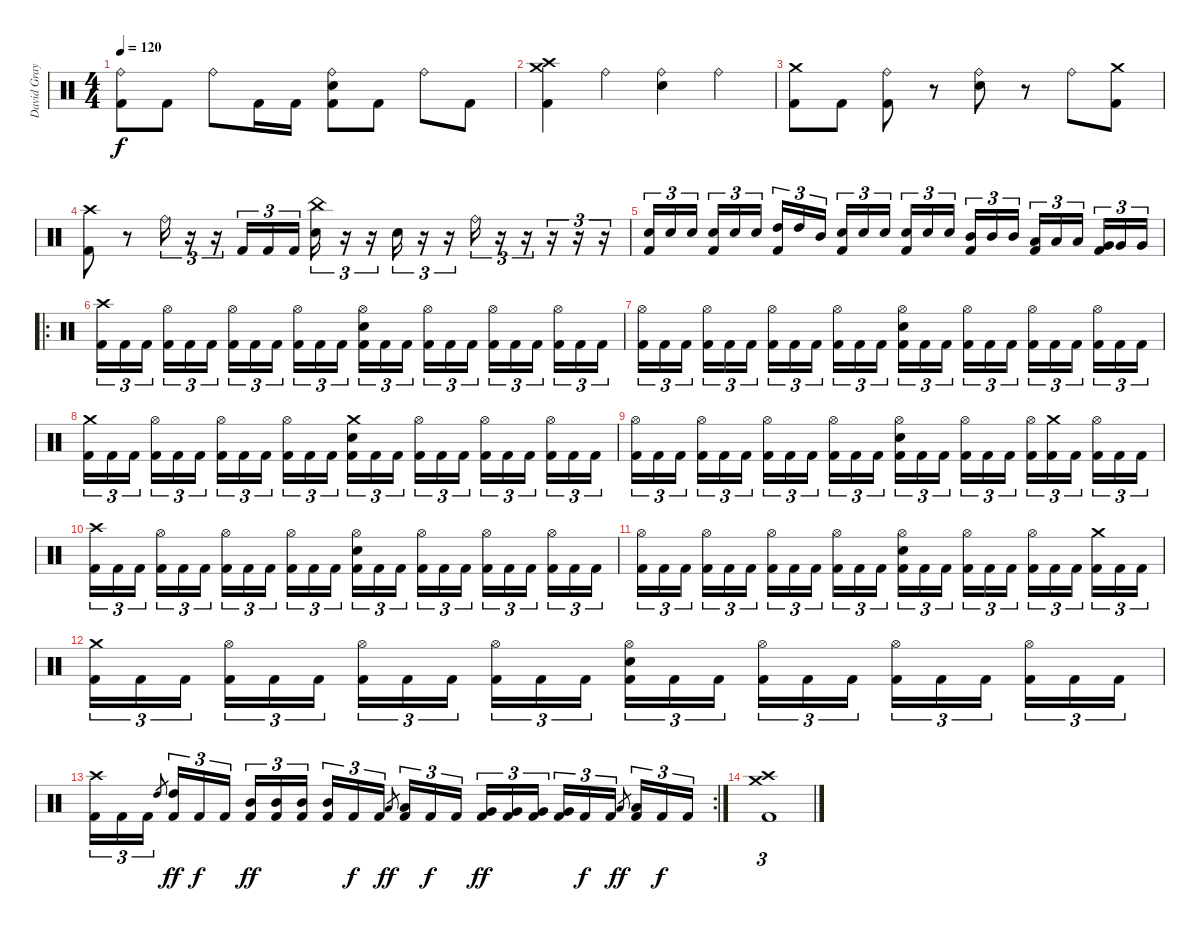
\track ("David Gray" "David Gray") {instrument percussion}
\staff {score}
\articulation defaults
\ts (4 4)
\tempo 120
\clef neutral
\ks c
("Ride (bell)" "Kick (hit) 2").8{dy f} "Kick (hit) 2".8 "Ride (bell)".8 "Kick (hit) 2".16 "Kick (hit) 2".16 ("Ride (bell)" "Electric Snare (hit)" "Kick (hit) 2").8 "Kick (hit) 2".8 "Ride (bell)".8 "Kick (hit) 2".8 |
("Crash high (hit)" "Crash medium (hit)" "Kick (hit) 2").4 "Ride (bell)".4 ("Ride (bell)" "Electric Snare (hit)").4 "Ride (bell)".4 |
("Crash medium (hit)" "Kick (hit) 2").8 "Kick (hit) 2".8 ("Ride (bell)" "Kick (hit) 2").8 r.8 ("Ride (bell)" "Electric Snare (hit)").8 r.8 "Ride (bell)".8 ("Crash medium (hit)" "Kick (hit) 2").8 |
("Crash high (hit)" "Kick (hit) 2").8 r.8 "Ride (bell)".16{tu (3 2)} r.16{tu (3 2)} r.16{tu (3 2)} "Kick (hit) 2".16{tu (3 2)} "Kick (hit) 2".16{tu (3 2)} "Kick (hit) 2".16{tu (3 2)} ("China (hit)" "Electric Snare (hit)").16{tu (3 2)} r.16{tu (3 2)} r.16{tu (3 2)} "Electric Snare (hit)".16{tu (3 2)} r.16{tu (3 2)} r.16{tu (3 2)} "Ride (bell)".16{tu (3 2)} r.16{tu (3 2)} r.16{tu (3 2)} r.16{tu (3 2)} r.16{tu (3 2)} r.16{tu (3 2)} |
("Electric Snare (hit)" "Kick (hit) 2").16{tu (3 2)} "Electric Snare (hit)".16{tu (3 2)} "Electric Snare (hit)".16{tu (3 2) beam splitsecondary} ("Electric Snare (hit)" "Kick (hit) 2").16{tu (3 2)} "Electric Snare (hit)".16{tu (3 2)} "Electric Snare (hit)".16{tu (3 2)} ("High Tom (hit)" "Kick (hit) 2").16{tu (3 2)} "High Tom (hit)".16{tu (3 2)} "Mid Tom (hit)".16{tu (3 2) beam splitsecondary} ("Electric Snare (hit)" "Kick (hit) 2").16{tu (3 2)} "Electric Snare (hit)".16{tu (3 2)} "Electric Snare (hit)".16{tu (3 2)} ("Electric Snare (hit)" "Kick (hit) 2").16{tu (3 2)} "Electric Snare (hit)".16{tu (3 2)} "Electric Snare (hit)".16{tu (3 2) beam splitsecondary} ("Mid Tom (hit)" "Kick (hit) 2").16{tu (3 2)} "Mid Tom (hit)".16{tu (3 2)} "Mid Tom (hit)".16{tu (3 2)} ("Low Tom (hit)" "Kick (hit) 2").16{tu (3 2)} "Low Tom (hit)".16{tu (3 2)} "Low Tom (hit)".16{tu (3 2) beam splitsecondary} ("Very Low Tom (hit)" "Kick (hit) 2").16{tu (3 2)} "Very Low Tom (hit)".16{tu (3 2)} "Very Low Tom (hit)".16{tu (3 2)} |
\ro
("Crash high (hit)" "Kick (hit) 2").16{tu (3 2)} "Kick (hit) 2".16{tu (3 2)} "Kick (hit) 2".16{tu (3 2) beam splitsecondary} ("Hi-Hat (open)" "Kick (hit) 2").16{tu (3 2)} "Kick (hit) 2".16{tu (3 2)} "Kick (hit) 2".16{tu (3 2)} ("Hi-Hat (open)" "Kick (hit) 2").16{tu (3 2)} "Kick (hit) 2".16{tu (3 2)} "Kick (hit) 2".16{tu (3 2) beam splitsecondary} ("Hi-Hat (open)" "Kick (hit) 2").16{tu (3 2)} "Kick (hit) 2".16{tu (3 2)} "Kick (hit) 2".16{tu (3 2)} ("Hi-Hat (open)" "Electric Snare (hit)" "Kick (hit) 2").16{tu (3 2)} "Kick (hit) 2".16{tu (3 2)} "Kick (hit) 2".16{tu (3 2) beam splitsecondary} ("Hi-Hat (open)" "Kick (hit) 2").16{tu (3 2)} "Kick (hit) 2".16{tu (3 2)} "Kick (hit) 2".16{tu (3 2)} ("Hi-Hat (open)" "Kick (hit) 2").16{tu (3 2)} "Kick (hit) 2".16{tu (3 2)} "Kick (hit) 2".16{tu (3 2) beam splitsecondary} ("Hi-Hat (open)" "Kick (hit) 2").16{tu (3 2)} "Kick (hit) 2".16{tu (3 2)} "Kick (hit) 2".16{tu (3 2)} |
("Hi-Hat (open)" "Kick (hit) 2").16{tu (3 2)} "Kick (hit) 2".16{tu (3 2)} "Kick (hit) 2".16{tu (3 2) beam splitsecondary} ("Hi-Hat (open)" "Kick (hit) 2").16{tu (3 2)} "Kick (hit) 2".16{tu (3 2)} "Kick (hit) 2".16{tu (3 2)} ("Hi-Hat (open)" "Kick (hit) 2").16{tu (3 2)} "Kick (hit) 2".16{tu (3 2)} "Kick (hit) 2".16{tu (3 2) beam splitsecondary} ("Hi-Hat (open)" "Kick (hit) 2").16{tu (3 2)} "Kick (hit) 2".16{tu (3 2)} "Kick (hit) 2".16{tu (3 2)} ("Hi-Hat (open)" "Electric Snare (hit)" "Kick (hit) 2").16{tu (3 2)} "Kick (hit) 2".16{tu (3 2)} "Kick (hit) 2".16{tu (3 2) beam splitsecondary} ("Hi-Hat (open)" "Kick (hit) 2").16{tu (3 2)} "Kick (hit) 2".16{tu (3 2)} "Kick (hit) 2".16{tu (3 2)} ("Hi-Hat (open)" "Kick (hit) 2").16{tu (3 2)} "Kick (hit) 2".16{tu (3 2)} "Kick (hit) 2".16{tu (3 2) beam splitsecondary} ("Hi-Hat (open)" "Kick (hit) 2").16{tu (3 2)} "Kick (hit) 2".16{tu (3 2)} "Kick (hit) 2".16{tu (3 2)} |
("Crash medium (hit)" "Kick (hit) 2").16{tu (3 2)} "Kick (hit) 2".16{tu (3 2)} "Kick (hit) 2".16{tu (3 2) beam splitsecondary} ("Hi-Hat (open)" "Kick (hit) 2").16{tu (3 2)} "Kick (hit) 2".16{tu (3 2)} "Kick (hit) 2".16{tu (3 2)} ("Hi-Hat (open)" "Kick (hit) 2").16{tu (3 2)} "Kick (hit) 2".16{tu (3 2)} "Kick (hit) 2".16{tu (3 2) beam splitsecondary} ("Hi-Hat (open)" "Kick (hit) 2").16{tu (3 2)} "Kick (hit) 2".16{tu (3 2)} "Kick (hit) 2".16{tu (3 2)} ("Crash medium (hit)" "Electric Snare (hit)" "Kick (hit) 2").16{tu (3 2)} "Kick (hit) 2".16{tu (3 2)} "Kick (hit) 2".16{tu (3 2) beam splitsecondary} ("Hi-Hat (open)" "Kick (hit) 2").16{tu (3 2)} "Kick (hit) 2".16{tu (3 2)} "Kick (hit) 2".16{tu (3 2)} ("Hi-Hat (open)" "Kick (hit) 2").16{tu (3 2)} "Kick (hit) 2".16{tu (3 2)} "Kick (hit) 2".16{tu (3 2) beam splitsecondary} ("Hi-Hat (open)" "Kick (hit) 2").16{tu (3 2)} "Kick (hit) 2".16{tu (3 2)} "Kick (hit) 2".16{tu (3 2)} |
("Hi-Hat (open)" "Kick (hit) 2").16{tu (3 2)} "Kick (hit) 2".16{tu (3 2)} "Kick (hit) 2".16{tu (3 2) beam splitsecondary} ("Hi-Hat (open)" "Kick (hit) 2").16{tu (3 2)} "Kick (hit) 2".16{tu (3 2)} "Kick (hit) 2".16{tu (3 2)} ("Hi-Hat (open)" "Kick (hit) 2").16{tu (3 2)} "Kick (hit) 2".16{tu (3 2)} "Kick (hit) 2".16{tu (3 2) beam splitsecondary} ("Hi-Hat (open)" "Kick (hit) 2").16{tu (3 2)} "Kick (hit) 2".16{tu (3 2)} "Kick (hit) 2".16{tu (3 2)} ("Hi-Hat (open)" "Electric Snare (hit)" "Kick (hit) 2").16{tu (3 2)} "Kick (hit) 2".16{tu (3 2)} "Kick (hit) 2".16{tu (3 2) beam splitsecondary} ("Hi-Hat (open)" "Kick (hit) 2").16{tu (3 2)} "Kick (hit) 2".16{tu (3 2)} "Kick (hit) 2".16{tu (3 2)} ("Hi-Hat (open)" "Kick (hit) 2").16{tu (3 2)} ("Crash medium (hit)" "Kick (hit) 2").16{tu (3 2)} "Kick (hit) 2".16{tu (3 2) beam splitsecondary} ("Hi-Hat (open)" "Kick (hit) 2").16{tu (3 2)} "Kick (hit) 2".16{tu (3 2)} "Kick (hit) 2".16{tu (3 2)} |
("Crash high (hit)" "Kick (hit) 2").16{tu (3 2)} "Kick (hit) 2".16{tu (3 2)} "Kick (hit) 2".16{tu (3 2) beam splitsecondary} ("Hi-Hat (open)" "Kick (hit) 2").16{tu (3 2)} "Kick (hit) 2".16{tu (3 2)} "Kick (hit) 2".16{tu (3 2)} ("Hi-Hat (open)" "Kick (hit) 2").16{tu (3 2)} "Kick (hit) 2".16{tu (3 2)} "Kick (hit) 2".16{tu (3 2) beam splitsecondary} ("Hi-Hat (open)" "Kick (hit) 2").16{tu (3 2)} "Kick (hit) 2".16{tu (3 2)} "Kick (hit) 2".16{tu (3 2)} ("Hi-Hat (open)" "Electric Snare (hit)" "Kick (hit) 2").16{tu (3 2)} "Kick (hit) 2".16{tu (3 2)} "Kick (hit) 2".16{tu (3 2) beam splitsecondary} ("Hi-Hat (open)" "Kick (hit) 2").16{tu (3 2)} "Kick (hit) 2".16{tu (3 2)} "Kick (hit) 2".16{tu (3 2)} ("Hi-Hat (open)" "Kick (hit) 2").16{tu (3 2)} "Kick (hit) 2".16{tu (3 2)} "Kick (hit) 2".16{tu (3 2) beam splitsecondary} ("Hi-Hat (open)" "Kick (hit) 2").16{tu (3 2)} "Kick (hit) 2".16{tu (3 2)} "Kick (hit) 2".16{tu (3 2)} |
("Hi-Hat (open)" "Kick (hit) 2").16{tu (3 2)} "Kick (hit) 2".16{tu (3 2)} "Kick (hit) 2".16{tu (3 2) beam splitsecondary} ("Hi-Hat (open)" "Kick (hit) 2").16{tu (3 2)} "Kick (hit) 2".16{tu (3 2)} "Kick (hit) 2".16{tu (3 2)} ("Hi-Hat (open)" "Kick (hit) 2").16{tu (3 2)} "Kick (hit) 2".16{tu (3 2)} "Kick (hit) 2".16{tu (3 2) beam splitsecondary} ("Hi-Hat (open)" "Kick (hit) 2").16{tu (3 2)} "Kick (hit) 2".16{tu (3 2)} "Kick (hit) 2".16{tu (3 2)} ("Hi-Hat (open)" "Electric Snare (hit)" "Kick (hit) 2").16{tu (3 2)} "Kick (hit) 2".16{tu (3 2)} "Kick (hit) 2".16{tu (3 2) beam splitsecondary} ("Hi-Hat (open)" "Kick (hit) 2").16{tu (3 2)} "Kick (hit) 2".16{tu (3 2)} "Kick (hit) 2".16{tu (3 2)} ("Hi-Hat (open)" "Kick (hit) 2").16{tu (3 2)} "Kick (hit) 2".16{tu (3 2)} "Kick (hit) 2".16{tu (3 2) beam splitsecondary} ("Crash medium (hit)" "Kick (hit) 2").16{tu (3 2)} "Kick (hit) 2".16{tu (3 2)} "Kick (hit) 2".16{tu (3 2)} |
("Crash medium (hit)" "Kick (hit) 2").16{tu (3 2)} "Kick (hit) 2".16{tu (3 2)} "Kick (hit) 2".16{tu (3 2) beam splitsecondary} ("Hi-Hat (open)" "Kick (hit) 2").16{tu (3 2)} "Kick (hit) 2".16{tu (3 2)} "Kick (hit) 2".16{tu (3 2)} ("Hi-Hat (open)" "Kick (hit) 2").16{tu (3 2)} "Kick (hit) 2".16{tu (3 2)} "Kick (hit) 2".16{tu (3 2) beam splitsecondary} ("Hi-Hat (open)" "Kick (hit) 2").16{tu (3 2)} "Kick (hit) 2".16{tu (3 2)} "Kick (hit) 2".16{tu (3 2)} ("Hi-Hat (open)" "Electric Snare (hit)" "Kick (hit) 2").16{tu (3 2)} "Kick (hit) 2".16{tu (3 2)} "Kick (hit) 2".16{tu (3 2) beam splitsecondary} ("Hi-Hat (open)" "Kick (hit) 2").16{tu (3 2)} "Kick (hit) 2".16{tu (3 2)} "Kick (hit) 2".16{tu (3 2)} ("Hi-Hat (open)" "Kick (hit) 2").16{tu (3 2)} "Kick (hit) 2".16{tu (3 2)} "Kick (hit) 2".16{tu (3 2) beam splitsecondary} ("Hi-Hat (open)" "Kick (hit) 2").16{tu (3 2)} "Kick (hit) 2".16{tu (3 2)} "Kick (hit) 2".16{tu (3 2)} |
\rc 2
("Crash high (hit)" "Kick (hit) 2").16{tu (3 2)} "Kick (hit) 2".16{tu (3 2)} "Kick (hit) 2".16{tu (3 2)} "High Tom (hit)".8{gr beam splitsecondary} ("High Tom (hit)" "Kick (hit) 2").16{tu (3 2) dy ff} "Kick (hit) 2".16{tu (3 2) dy f} "Kick (hit) 2".16{tu (3 2)} ("Mid Tom (hit)" "Kick (hit) 2").16{tu (3 2) dy ff} ("Mid Tom (hit)" "Kick (hit) 2").16{tu (3 2)} ("Mid Tom (hit)" "Kick (hit) 2").16{tu (3 2) beam splitsecondary} ("Mid Tom (hit)" "Kick (hit) 2").16{tu (3 2)} "Kick (hit) 2".16{tu (3 2) dy f} "Kick (hit) 2".16{tu (3 2)} "Low Tom (hit)".8{gr dy ff} ("Low Tom (hit)" "Kick (hit) 2").16{tu (3 2)} "Kick (hit) 2".16{tu (3 2) dy f} "Kick (hit) 2".16{tu (3 2) beam splitsecondary} ("Very Low Tom (hit)" "Kick (hit) 2").16{tu (3 2) dy ff} ("Very Low Tom (hit)" "Kick (hit) 2").16{tu (3 2)} ("Very Low Tom (hit)" "Kick (hit) 2").16{tu (3 2)} ("Very Low Tom (hit)" "Kick (hit) 2").16{tu (3 2)} "Kick (hit) 2".16{tu (3 2) dy f} "Kick (hit) 2".16{tu (3 2)} "Low Floor Tom (hit)".8{gr dy ff beam splitsecondary} ("Low Floor Tom (hit)" "Kick (hit) 2").16{tu (3 2)} "Kick (hit) 2".16{tu (3 2) dy f} "Kick (hit) 2".16{tu (3 2)} |
("Crash medium (hit)" "Crash high (hit)" "Kick (hit) 2").1{tu (3 2)}
